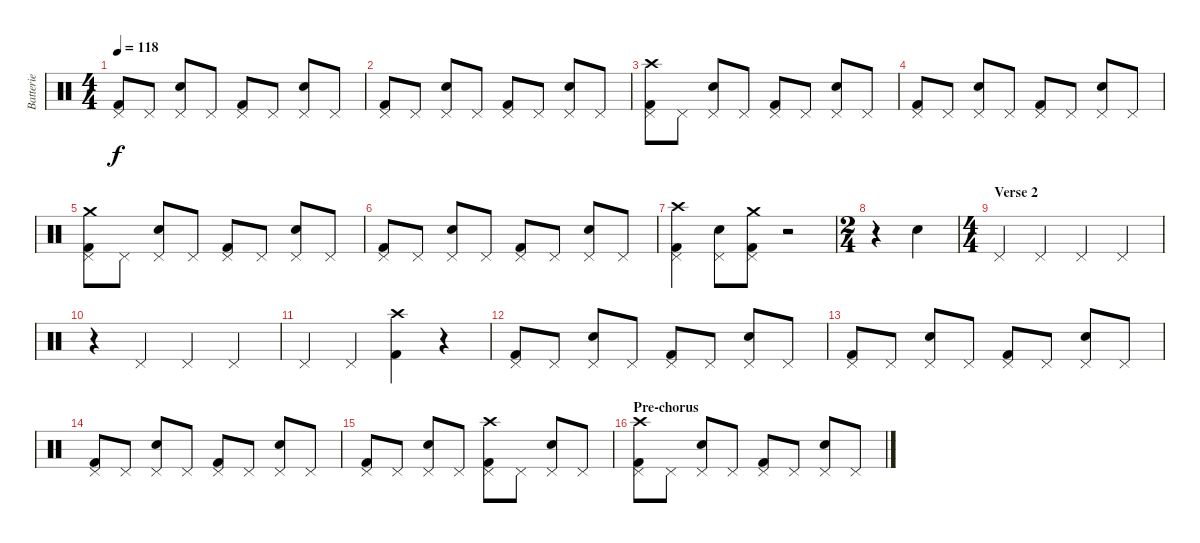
\track ("Batterie" "Batterie") {instrument percussion}
\staff {score}
\articulation defaults
\ts (4 4)
\tempo 118
\clef neutral
\ks c
("Pedal Hi-Hat (hit)" "Kick (hit) 2").8{dy f} "Pedal Hi-Hat (hit)".8 ("Pedal Hi-Hat (hit)" "Snare (hit) 2").8 "Pedal Hi-Hat (hit)".8 ("Pedal Hi-Hat (hit)" "Kick (hit) 2").8 "Pedal Hi-Hat (hit)".8 ("Pedal Hi-Hat (hit)" "Snare (hit) 2").8 "Pedal Hi-Hat (hit)".8 |
("Pedal Hi-Hat (hit)" "Kick (hit) 2").8 "Pedal Hi-Hat (hit)".8 ("Pedal Hi-Hat (hit)" "Snare (hit) 2").8 "Pedal Hi-Hat (hit)".8 ("Pedal Hi-Hat (hit)" "Kick (hit) 2").8 "Pedal Hi-Hat (hit)".8 ("Pedal Hi-Hat (hit)" "Snare (hit) 2").8 "Pedal Hi-Hat (hit)".8 |
("Pedal Hi-Hat (hit)" "Crash high (hit)" "Kick (hit) 2").8 "Pedal Hi-Hat (hit)".8 ("Pedal Hi-Hat (hit)" "Snare (hit) 2").8 "Pedal Hi-Hat (hit)".8 ("Pedal Hi-Hat (hit)" "Kick (hit) 2").8 "Pedal Hi-Hat (hit)".8 ("Pedal Hi-Hat (hit)" "Snare (hit) 2").8 "Pedal Hi-Hat (hit)".8 |
("Pedal Hi-Hat (hit)" "Kick (hit) 2").8 "Pedal Hi-Hat (hit)".8 ("Pedal Hi-Hat (hit)" "Snare (hit) 2").8 "Pedal Hi-Hat (hit)".8 ("Pedal Hi-Hat (hit)" "Kick (hit) 2").8 "Pedal Hi-Hat (hit)".8 ("Pedal Hi-Hat (hit)" "Snare (hit) 2").8 "Pedal Hi-Hat (hit)".8 |
("Pedal Hi-Hat (hit)" "Crash medium (hit)" "Kick (hit) 2").8 "Pedal Hi-Hat (hit)".8 ("Pedal Hi-Hat (hit)" "Snare (hit) 2").8 "Pedal Hi-Hat (hit)".8 ("Pedal Hi-Hat (hit)" "Kick (hit) 2").8 "Pedal Hi-Hat (hit)".8 ("Pedal Hi-Hat (hit)" "Snare (hit) 2").8 "Pedal Hi-Hat (hit)".8 |
("Pedal Hi-Hat (hit)" "Kick (hit) 2").8 "Pedal Hi-Hat (hit)".8 ("Pedal Hi-Hat (hit)" "Snare (hit) 2").8 "Pedal Hi-Hat (hit)".8 ("Pedal Hi-Hat (hit)" "Kick (hit) 2").8 "Pedal Hi-Hat (hit)".8 ("Pedal Hi-Hat (hit)" "Snare (hit) 2").8 "Pedal Hi-Hat (hit)".8 |
("Pedal Hi-Hat (hit)" "Crash high (hit)" "Kick (hit) 2").4 ("Pedal Hi-Hat (hit)" "Snare (hit) 2").8 ("Pedal Hi-Hat (hit)" "Crash medium (hit)" "Kick (hit) 2").8 r.2 |
\ts (2 4)
r.4 "Snare (hit) 2".4 |
\ts (4 4)
\section ("" "Verse 2")
"Pedal Hi-Hat (hit)".4 "Pedal Hi-Hat (hit)".4 "Pedal Hi-Hat (hit)".4 "Pedal Hi-Hat (hit)".4 |
r.4 "Pedal Hi-Hat (hit)".4 "Pedal Hi-Hat (hit)".4 "Pedal Hi-Hat (hit)".4 |
"Pedal Hi-Hat (hit)".4 "Pedal Hi-Hat (hit)".4 ("Crash high (hit)" "Kick (hit) 2").4 r.4 |
("Pedal Hi-Hat (hit)" "Kick (hit) 2").8 "Pedal Hi-Hat (hit)".8 ("Pedal Hi-Hat (hit)" "Snare (hit) 2").8 "Pedal Hi-Hat (hit)".8 ("Pedal Hi-Hat (hit)" "Kick (hit) 2").8 "Pedal Hi-Hat (hit)".8 ("Pedal Hi-Hat (hit)" "Snare (hit) 2").8 "Pedal Hi-Hat (hit)".8 |
("Pedal Hi-Hat (hit)" "Kick (hit) 2").8 "Pedal Hi-Hat (hit)".8 ("Pedal Hi-Hat (hit)" "Snare (hit) 2").8 "Pedal Hi-Hat (hit)".8 ("Pedal Hi-Hat (hit)" "Kick (hit) 2").8 "Pedal Hi-Hat (hit)".8 ("Pedal Hi-Hat (hit)" "Snare (hit) 2").8 "Pedal Hi-Hat (hit)".8 |
("Pedal Hi-Hat (hit)" "Kick (hit) 2").8 "Pedal Hi-Hat (hit)".8 ("Pedal Hi-Hat (hit)" "Snare (hit) 2").8 "Pedal Hi-Hat (hit)".8 ("Pedal Hi-Hat (hit)" "Kick (hit) 2").8 "Pedal Hi-Hat (hit)".8 ("Pedal Hi-Hat (hit)" "Snare (hit) 2").8 "Pedal Hi-Hat (hit)".8 |
("Pedal Hi-Hat (hit)" "Kick (hit) 2").8 "Pedal Hi-Hat (hit)".8 ("Pedal Hi-Hat (hit)" "Snare (hit) 2").8 "Pedal Hi-Hat (hit)".8 ("Pedal Hi-Hat (hit)" "Crash high (hit)" "Kick (hit) 2").8 "Pedal Hi-Hat (hit)".8 ("Pedal Hi-Hat (hit)" "Snare (hit) 2").8 "Pedal Hi-Hat (hit)".8 |
\section ("" "Pre-chorus")
("Pedal Hi-Hat (hit)" "Crash high (hit)" "Kick (hit) 2").8 "Pedal Hi-Hat (hit)".8 ("Pedal Hi-Hat (hit)" "Snare (hit) 2").8 "Pedal Hi-Hat (hit)".8 ("Pedal Hi-Hat (hit)" "Kick (hit) 2").8 "Pedal Hi-Hat (hit)".8 ("Pedal Hi-Hat (hit)" "Snare (hit) 2").8 "Pedal Hi-Hat (hit)".8
